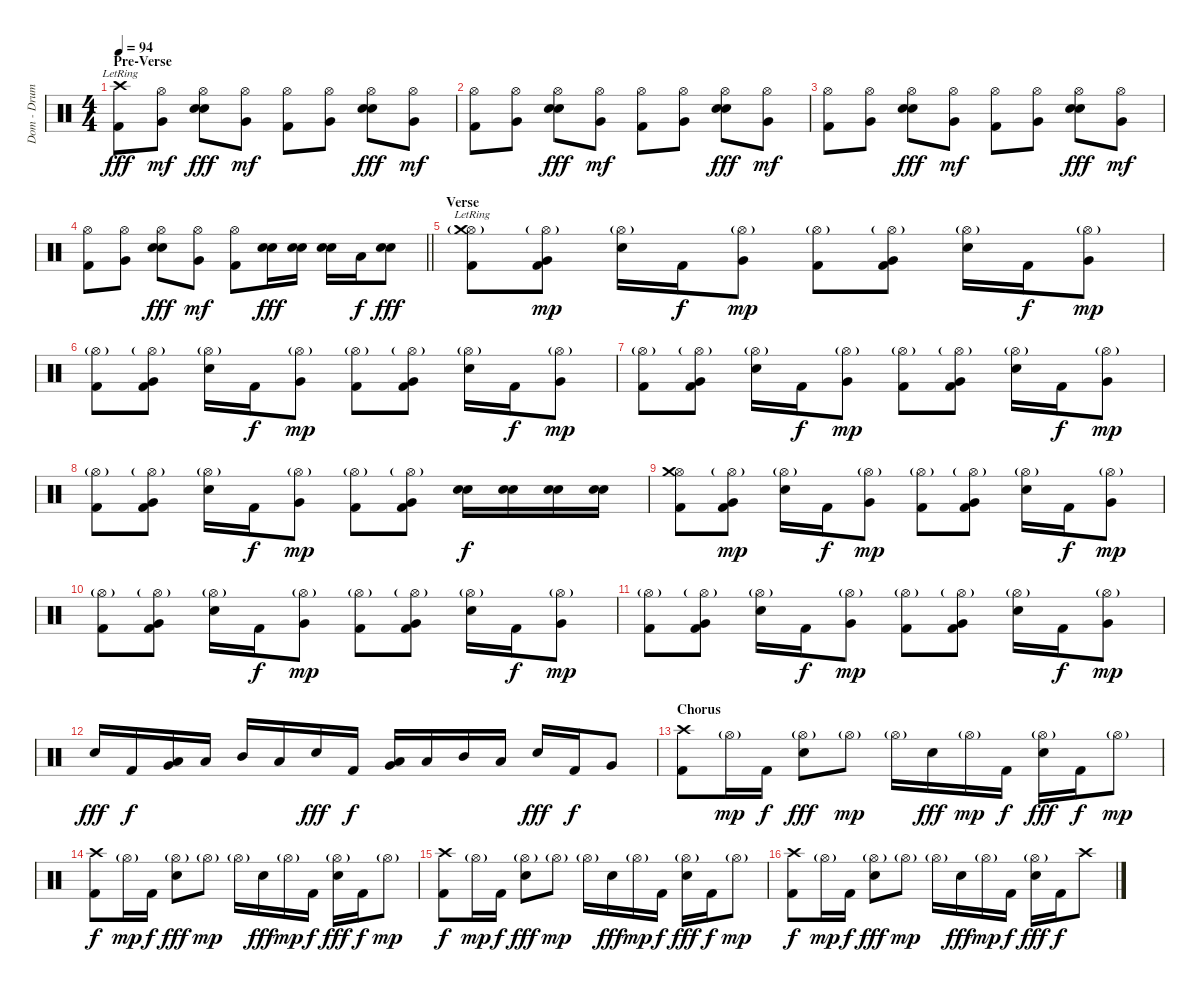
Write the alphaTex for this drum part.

\track ("Dom - Drums" "Dom - Drum") {instrument percussion}
\staff {score}
\articulation defaults
\ts (4 4)
\section ("" "Pre-Verse")
\tempo 94
\clef neutral
\ks c
("Crash high (hit)"{lr} "Kick (hit) 2").8{dy fff} ("Hi-Hat (open)" "Very Low Tom (hit)").8{dy mf} ("Hi-Hat (open)" "Electric Snare (hit)" "Snare (hit) 2").8{dy fff} ("Hi-Hat (open)" "Very Low Tom (hit)").8{dy mf} ("Hi-Hat (open)" "Kick (hit) 2").8 ("Hi-Hat (open)" "Very Low Tom (hit)").8 ("Hi-Hat (open)" "Electric Snare (hit)" "Snare (hit) 2").8{dy fff} ("Hi-Hat (open)" "Very Low Tom (hit)").8{dy mf} |
("Hi-Hat (open)" "Kick (hit) 2").8 ("Hi-Hat (open)" "Very Low Tom (hit)").8 ("Hi-Hat (open)" "Electric Snare (hit)" "Snare (hit) 2").8{dy fff} ("Hi-Hat (open)" "Very Low Tom (hit)").8{dy mf} ("Hi-Hat (open)" "Kick (hit) 2").8 ("Hi-Hat (open)" "Very Low Tom (hit)").8 ("Hi-Hat (open)" "Electric Snare (hit)" "Snare (hit) 2").8{dy fff} ("Hi-Hat (open)" "Very Low Tom (hit)").8{dy mf} |
("Hi-Hat (open)" "Kick (hit) 2").8 ("Hi-Hat (open)" "Very Low Tom (hit)").8 ("Hi-Hat (open)" "Electric Snare (hit)" "Snare (hit) 2").8{dy fff} ("Hi-Hat (open)" "Very Low Tom (hit)").8{dy mf} ("Hi-Hat (open)" "Kick (hit) 2").8 ("Hi-Hat (open)" "Very Low Tom (hit)").8 ("Hi-Hat (open)" "Electric Snare (hit)" "Snare (hit) 2").8{dy fff} ("Hi-Hat (open)" "Very Low Tom (hit)").8{dy mf} |
\barLineRight lightlight
("Hi-Hat (open)" "Kick (hit) 2").8 ("Hi-Hat (open)" "Very Low Tom (hit)").8 ("Hi-Hat (open)" "Electric Snare (hit)" "Snare (hit) 2").8{dy fff} ("Hi-Hat (open)" "Very Low Tom (hit)").8{dy mf} ("Hi-Hat (open)" "Kick (hit) 2").8 ("Electric Snare (hit)" "Snare (hit) 2").16{dy fff} ("Electric Snare (hit)" "Snare (hit) 2").16 ("Electric Snare (hit)" "Snare (hit) 2").16 "Low Tom (hit)".16{dy f} ("Electric Snare (hit)" "Snare (hit) 2").8{dy fff} |
\section ("" "Verse")
("Hi-Hat (open)"{g} "Crash medium (hit)"{lr} "Kick (hit) 2").8 ("Hi-Hat (open)"{g} "Very Low Tom (hit)" "Kick (hit) 2").8{dy mp} ("Hi-Hat (open)"{g} "Electric Snare (hit)").16 "Kick (hit) 2".16{dy f} ("Hi-Hat (open)"{g} "Very Low Tom (hit)").8{dy mp} ("Hi-Hat (open)"{g} "Kick (hit) 2").8 ("Hi-Hat (open)"{g} "Very Low Tom (hit)" "Kick (hit) 2").8 ("Hi-Hat (open)"{g} "Electric Snare (hit)").16 "Kick (hit) 2".16{dy f} ("Hi-Hat (open)"{g} "Very Low Tom (hit)").8{dy mp} |
("Hi-Hat (open)"{g} "Kick (hit) 2").8 ("Hi-Hat (open)"{g} "Very Low Tom (hit)" "Kick (hit) 2").8 ("Hi-Hat (open)"{g} "Electric Snare (hit)").16 "Kick (hit) 2".16{dy f} ("Hi-Hat (open)"{g} "Very Low Tom (hit)").8{dy mp} ("Hi-Hat (open)"{g} "Kick (hit) 2").8 ("Hi-Hat (open)"{g} "Very Low Tom (hit)" "Kick (hit) 2").8 ("Hi-Hat (open)"{g} "Electric Snare (hit)").16 "Kick (hit) 2".16{dy f} ("Hi-Hat (open)"{g} "Very Low Tom (hit)").8{dy mp} |
("Hi-Hat (open)"{g} "Kick (hit) 2").8 ("Hi-Hat (open)"{g} "Very Low Tom (hit)" "Kick (hit) 2").8 ("Hi-Hat (open)"{g} "Electric Snare (hit)").16 "Kick (hit) 2".16{dy f} ("Hi-Hat (open)"{g} "Very Low Tom (hit)").8{dy mp} ("Hi-Hat (open)"{g} "Kick (hit) 2").8 ("Hi-Hat (open)"{g} "Very Low Tom (hit)" "Kick (hit) 2").8 ("Hi-Hat (open)"{g} "Electric Snare (hit)").16 "Kick (hit) 2".16{dy f} ("Hi-Hat (open)"{g} "Very Low Tom (hit)").8{dy mp} |
("Hi-Hat (open)"{g} "Kick (hit) 2").8 ("Hi-Hat (open)"{g} "Very Low Tom (hit)" "Kick (hit) 2").8 ("Hi-Hat (open)"{g} "Electric Snare (hit)").16 "Kick (hit) 2".16{dy f} ("Hi-Hat (open)"{g} "Very Low Tom (hit)").8{dy mp} ("Hi-Hat (open)"{g} "Kick (hit) 2").8 ("Hi-Hat (open)"{g} "Very Low Tom (hit)" "Kick (hit) 2").8 ("Snare (hit) 2" "Electric Snare (hit)").16{dy f} ("Snare (hit) 2" "Electric Snare (hit)").16 ("Snare (hit) 2" "Electric Snare (hit)").16 ("Snare (hit) 2" "Electric Snare (hit)").16 |
("Hi-Hat (open)" "Crash medium (hit)" "Kick (hit) 2").8 ("Hi-Hat (open)"{g} "Very Low Tom (hit)" "Kick (hit) 2").8{dy mp} ("Hi-Hat (open)"{g} "Electric Snare (hit)").16 "Kick (hit) 2".16{dy f} ("Hi-Hat (open)"{g} "Very Low Tom (hit)").8{dy mp} ("Hi-Hat (open)"{g} "Kick (hit) 2").8 ("Hi-Hat (open)"{g} "Very Low Tom (hit)" "Kick (hit) 2").8 ("Hi-Hat (open)"{g} "Electric Snare (hit)").16 "Kick (hit) 2".16{dy f} ("Hi-Hat (open)"{g} "Very Low Tom (hit)").8{dy mp} |
("Hi-Hat (open)"{g} "Kick (hit) 2").8 ("Hi-Hat (open)"{g} "Very Low Tom (hit)" "Kick (hit) 2").8 ("Hi-Hat (open)"{g} "Electric Snare (hit)").16 "Kick (hit) 2".16{dy f} ("Hi-Hat (open)"{g} "Very Low Tom (hit)").8{dy mp} ("Hi-Hat (open)"{g} "Kick (hit) 2").8 ("Hi-Hat (open)"{g} "Very Low Tom (hit)" "Kick (hit) 2").8 ("Hi-Hat (open)"{g} "Electric Snare (hit)").16 "Kick (hit) 2".16{dy f} ("Hi-Hat (open)"{g} "Very Low Tom (hit)").8{dy mp} |
("Hi-Hat (open)"{g} "Kick (hit) 2").8 ("Hi-Hat (open)"{g} "Very Low Tom (hit)" "Kick (hit) 2").8 ("Hi-Hat (open)"{g} "Electric Snare (hit)").16 "Kick (hit) 2".16{dy f} ("Hi-Hat (open)"{g} "Very Low Tom (hit)").8{dy mp} ("Hi-Hat (open)"{g} "Kick (hit) 2").8 ("Hi-Hat (open)"{g} "Very Low Tom (hit)" "Kick (hit) 2").8 ("Hi-Hat (open)"{g} "Electric Snare (hit)").16 "Kick (hit) 2".16{dy f} ("Hi-Hat (open)"{g} "Very Low Tom (hit)").8{dy mp} |
"Snare (hit) 2".16{dy fff} "Kick (hit) 2".16{dy f} ("Very Low Tom (hit)" "Low Floor Tom (hit)").16 "Low Tom (hit)".16 "Mid Tom (hit)".16 "Low Tom (hit)".16 "Snare (hit) 2".16{dy fff} "Kick (hit) 2".16{dy f} ("Very Low Tom (hit)" "Low Floor Tom (hit)").16 "Low Tom (hit)".16 "Mid Tom (hit)".16 "Low Tom (hit)".16 "Snare (hit) 2".16{dy fff} "Kick (hit) 2".16{dy f} "Very Low Tom (hit)".8 |
\section ("" "Chorus")
("Crash high (hit)" "Kick (hit) 2").8 "Hi-Hat (open)"{g}.16{dy mp} "Kick (hit) 2".16{dy f} ("Hi-Hat (open)"{g} "Snare (hit) 2").8{dy fff} "Hi-Hat (open)"{g}.8{dy mp} "Hi-Hat (open)"{g}.16 "Snare (hit) 2".16{dy fff} "Hi-Hat (open)"{g}.16{dy mp} "Kick (hit) 2".16{dy f} ("Hi-Hat (open)"{g} "Snare (hit) 2").16{dy fff} "Kick (hit) 2".16{dy f} "Hi-Hat (open)"{g}.8{dy mp} |
("Crash high (hit)" "Kick (hit) 2").8{dy f} "Hi-Hat (open)"{g}.16{dy mp} "Kick (hit) 2".16{dy f} ("Hi-Hat (open)"{g} "Snare (hit) 2").8{dy fff} "Hi-Hat (open)"{g}.8{dy mp} "Hi-Hat (open)"{g}.16 "Snare (hit) 2".16{dy fff} "Hi-Hat (open)"{g}.16{dy mp} "Kick (hit) 2".16{dy f} ("Hi-Hat (open)"{g} "Snare (hit) 2").16{dy fff} "Kick (hit) 2".16{dy f} "Hi-Hat (open)"{g}.8{dy mp} |
("Crash high (hit)" "Kick (hit) 2").8{dy f} "Hi-Hat (open)"{g}.16{dy mp} "Kick (hit) 2".16{dy f} ("Hi-Hat (open)"{g} "Snare (hit) 2").8{dy fff} "Hi-Hat (open)"{g}.8{dy mp} "Hi-Hat (open)"{g}.16 "Snare (hit) 2".16{dy fff} "Hi-Hat (open)"{g}.16{dy mp} "Kick (hit) 2".16{dy f} ("Hi-Hat (open)"{g} "Snare (hit) 2").16{dy fff} "Kick (hit) 2".16{dy f} "Hi-Hat (open)"{g}.8{dy mp} |
("Crash high (hit)" "Kick (hit) 2").8{dy f} "Hi-Hat (open)"{g}.16{dy mp} "Kick (hit) 2".16{dy f} ("Hi-Hat (open)"{g} "Snare (hit) 2").8{dy fff} "Hi-Hat (open)"{g}.8{dy mp} "Hi-Hat (open)"{g}.16 "Snare (hit) 2".16{dy fff} "Hi-Hat (open)"{g}.16{dy mp} "Kick (hit) 2".16{dy f} ("Hi-Hat (open)"{g} "Snare (hit) 2").16{dy fff} "Kick (hit) 2".16{dy f} "Crash high (hit)".8
